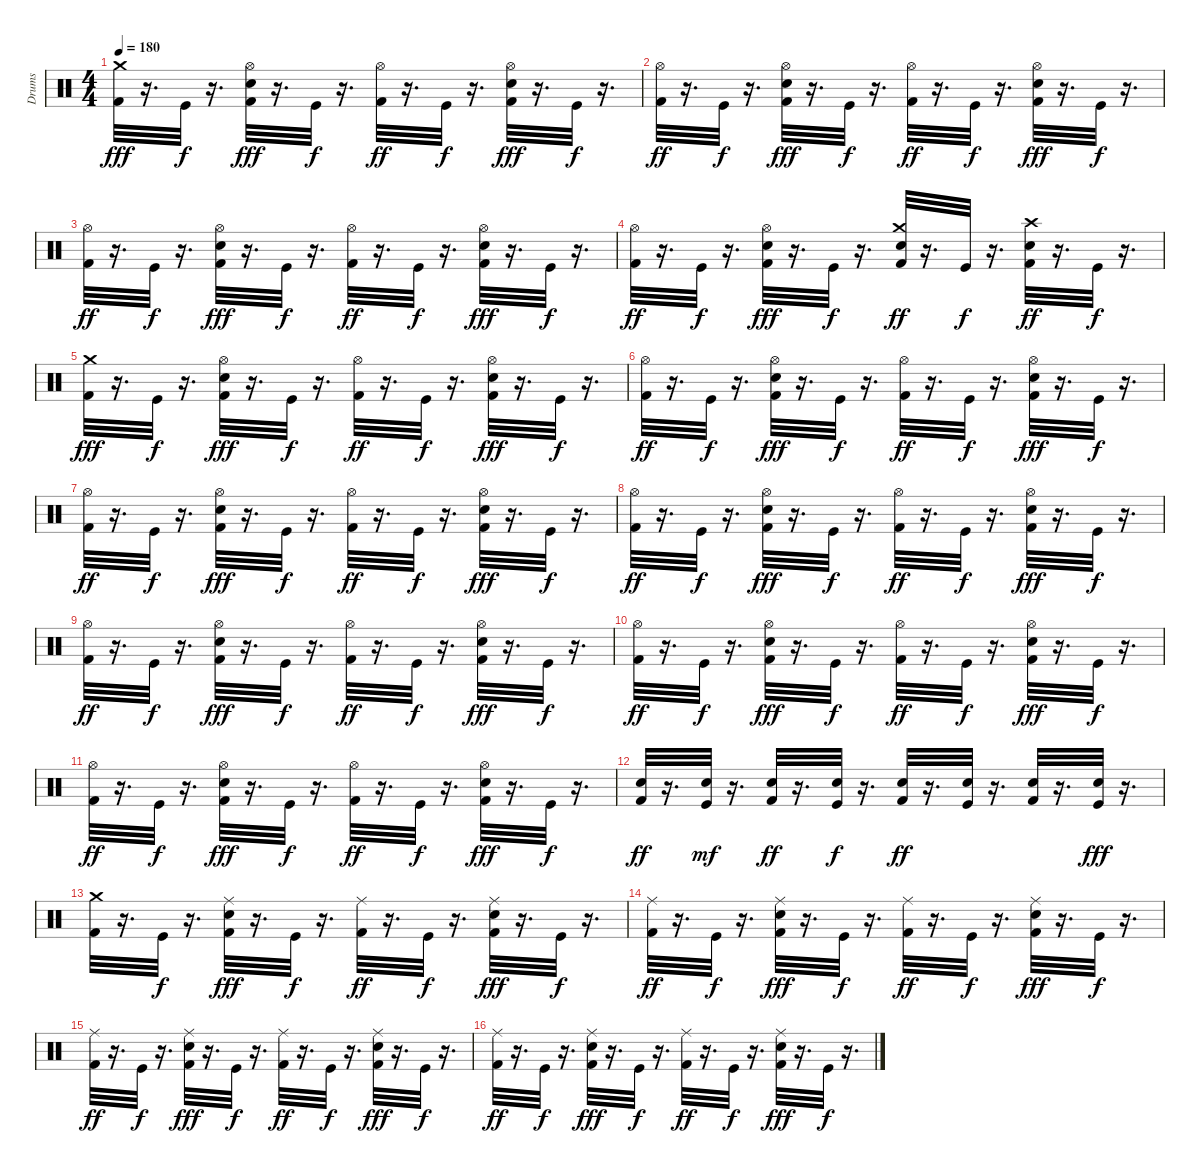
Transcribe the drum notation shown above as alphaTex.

\track ("Drums" "Drums") {instrument percussion}
\staff {score}
\articulation defaults
\ts (4 4)
\tempo 180
\clef neutral
\ks c
("Kick (hit) 2" "Crash medium (hit)").32{dy fff} r.16{d} "Kick (hit)".32{dy f} r.16{d} ("Snare (hit) 2" "Kick (hit) 2" "Hi-Hat (open)").32{dy fff} r.16{d} "Kick (hit)".32{dy f} r.16{d} ("Kick (hit) 2" "Hi-Hat (open)").32{dy ff} r.16{d} "Kick (hit)".32{dy f} r.16{d} ("Snare (hit) 2" "Kick (hit) 2" "Hi-Hat (open)").32{dy fff} r.16{d} "Kick (hit)".32{dy f} r.16{d} |
("Kick (hit) 2" "Hi-Hat (open)").32{dy ff} r.16{d} "Kick (hit)".32{dy f} r.16{d} ("Snare (hit) 2" "Kick (hit) 2" "Hi-Hat (open)").32{dy fff} r.16{d} "Kick (hit)".32{dy f} r.16{d} ("Kick (hit) 2" "Hi-Hat (open)").32{dy ff} r.16{d} "Kick (hit)".32{dy f} r.16{d} ("Snare (hit) 2" "Kick (hit) 2" "Hi-Hat (open)").32{dy fff} r.16{d} "Kick (hit)".32{dy f} r.16{d} |
("Kick (hit) 2" "Hi-Hat (open)").32{dy ff} r.16{d} "Kick (hit)".32{dy f} r.16{d} ("Snare (hit) 2" "Kick (hit) 2" "Hi-Hat (open)").32{dy fff} r.16{d} "Kick (hit)".32{dy f} r.16{d} ("Kick (hit) 2" "Hi-Hat (open)").32{dy ff} r.16{d} "Kick (hit)".32{dy f} r.16{d} ("Snare (hit) 2" "Kick (hit) 2" "Hi-Hat (open)").32{dy fff} r.16{d} "Kick (hit)".32{dy f} r.16{d} |
("Kick (hit) 2" "Hi-Hat (open)").32{dy ff} r.16{d} "Kick (hit)".32{dy f} r.16{d} ("Snare (hit) 2" "Kick (hit) 2" "Hi-Hat (open)").32{dy fff} r.16{d} "Kick (hit)".32{dy f} r.16{d} ("Crash medium (hit)" "Snare (hit) 2" "Kick (hit) 2").32{dy ff} r.16{d} "Kick (hit)".32{dy f} r.16{d} ("Crash high (hit)" "Snare (hit) 2" "Kick (hit) 2").32{dy ff} r.16{d} "Kick (hit)".32{dy f} r.16{d} |
("Kick (hit) 2" "Crash medium (hit)").32{dy fff} r.16{d} "Kick (hit)".32{dy f} r.16{d} ("Snare (hit) 2" "Kick (hit) 2" "Hi-Hat (open)").32{dy fff} r.16{d} "Kick (hit)".32{dy f} r.16{d} ("Kick (hit) 2" "Hi-Hat (open)").32{dy ff} r.16{d} "Kick (hit)".32{dy f} r.16{d} ("Snare (hit) 2" "Kick (hit) 2" "Hi-Hat (open)").32{dy fff} r.16{d} "Kick (hit)".32{dy f} r.16{d} |
("Kick (hit) 2" "Hi-Hat (open)").32{dy ff} r.16{d} "Kick (hit)".32{dy f} r.16{d} ("Snare (hit) 2" "Kick (hit) 2" "Hi-Hat (open)").32{dy fff} r.16{d} "Kick (hit)".32{dy f} r.16{d} ("Kick (hit) 2" "Hi-Hat (open)").32{dy ff} r.16{d} "Kick (hit)".32{dy f} r.16{d} ("Snare (hit) 2" "Kick (hit) 2" "Hi-Hat (open)").32{dy fff} r.16{d} "Kick (hit)".32{dy f} r.16{d} |
("Kick (hit) 2" "Hi-Hat (open)").32{dy ff} r.16{d} "Kick (hit)".32{dy f} r.16{d} ("Snare (hit) 2" "Kick (hit) 2" "Hi-Hat (open)").32{dy fff} r.16{d} "Kick (hit)".32{dy f} r.16{d} ("Kick (hit) 2" "Hi-Hat (open)").32{dy ff} r.16{d} "Kick (hit)".32{dy f} r.16{d} ("Snare (hit) 2" "Kick (hit) 2" "Hi-Hat (open)").32{dy fff} r.16{d} "Kick (hit)".32{dy f} r.16{d} |
("Kick (hit) 2" "Hi-Hat (open)").32{dy ff} r.16{d} "Kick (hit)".32{dy f} r.16{d} ("Snare (hit) 2" "Kick (hit) 2" "Hi-Hat (open)").32{dy fff} r.16{d} "Kick (hit)".32{dy f} r.16{d} ("Kick (hit) 2" "Hi-Hat (open)").32{dy ff} r.16{d} "Kick (hit)".32{dy f} r.16{d} ("Snare (hit) 2" "Kick (hit) 2" "Hi-Hat (open)").32{dy fff} r.16{d} "Kick (hit)".32{dy f} r.16{d} |
("Kick (hit) 2" "Hi-Hat (open)").32{dy ff} r.16{d} "Kick (hit)".32{dy f} r.16{d} ("Snare (hit) 2" "Kick (hit) 2" "Hi-Hat (open)").32{dy fff} r.16{d} "Kick (hit)".32{dy f} r.16{d} ("Kick (hit) 2" "Hi-Hat (open)").32{dy ff} r.16{d} "Kick (hit)".32{dy f} r.16{d} ("Snare (hit) 2" "Kick (hit) 2" "Hi-Hat (open)").32{dy fff} r.16{d} "Kick (hit)".32{dy f} r.16{d} |
("Kick (hit) 2" "Hi-Hat (open)").32{dy ff} r.16{d} "Kick (hit)".32{dy f} r.16{d} ("Snare (hit) 2" "Kick (hit) 2" "Hi-Hat (open)").32{dy fff} r.16{d} "Kick (hit)".32{dy f} r.16{d} ("Kick (hit) 2" "Hi-Hat (open)").32{dy ff} r.16{d} "Kick (hit)".32{dy f} r.16{d} ("Snare (hit) 2" "Kick (hit) 2" "Hi-Hat (open)").32{dy fff} r.16{d} "Kick (hit)".32{dy f} r.16{d} |
("Kick (hit) 2" "Hi-Hat (open)").32{dy ff} r.16{d} "Kick (hit)".32{dy f} r.16{d} ("Snare (hit) 2" "Kick (hit) 2" "Hi-Hat (open)").32{dy fff} r.16{d} "Kick (hit)".32{dy f} r.16{d} ("Kick (hit) 2" "Hi-Hat (open)").32{dy ff} r.16{d} "Kick (hit)".32{dy f} r.16{d} ("Snare (hit) 2" "Kick (hit) 2" "Hi-Hat (open)").32{dy fff} r.16{d} "Kick (hit)".32{dy f} r.16{d} |
("Snare (hit) 2" "Kick (hit) 2").32{dy ff} r.16{d} ("Snare (hit) 2" "Kick (hit)").32{dy mf} r.16{d} ("Snare (hit) 2" "Kick (hit) 2").32{dy ff} r.16{d} ("Snare (hit) 2" "Kick (hit)").32{dy f} r.16{d} ("Snare (hit) 2" "Kick (hit) 2").32{dy ff} r.16{d} ("Snare (hit) 2" "Kick (hit)").32 r.16{d} ("Snare (hit) 2" "Kick (hit) 2").32 r.16{d} ("Snare (hit) 2" "Kick (hit)").32{dy fff} r.16{d} |
("Kick (hit) 2" "Crash medium (hit)").32 r.16{d} "Kick (hit)".32{dy f} r.16{d} ("Kick (hit) 2" "Snare (hit) 2" "Ride (middle)").32{dy fff} r.16{d} "Kick (hit)".32{dy f} r.16{d} ("Kick (hit) 2" "Ride (middle)").32{dy ff} r.16{d} "Kick (hit)".32{dy f} r.16{d} ("Kick (hit) 2" "Snare (hit) 2" "Ride (middle)").32{dy fff} r.16{d} "Kick (hit)".32{dy f} r.16{d} |
("Kick (hit) 2" "Ride (middle)").32{dy ff} r.16{d} "Kick (hit)".32{dy f} r.16{d} ("Snare (hit) 2" "Kick (hit) 2" "Ride (middle)").32{dy fff} r.16{d} "Kick (hit)".32{dy f} r.16{d} ("Kick (hit) 2" "Ride (middle)").32{dy ff} r.16{d} "Kick (hit)".32{dy f} r.16{d} ("Snare (hit) 2" "Kick (hit) 2" "Ride (middle)").32{dy fff} r.16{d} "Kick (hit)".32{dy f} r.16{d} |
("Kick (hit) 2" "Ride (middle)").32{dy ff} r.16{d} "Kick (hit)".32{dy f} r.16{d} ("Snare (hit) 2" "Kick (hit) 2" "Ride (middle)").32{dy fff} r.16{d} "Kick (hit)".32{dy f} r.16{d} ("Kick (hit) 2" "Ride (middle)").32{dy ff} r.16{d} "Kick (hit)".32{dy f} r.16{d} ("Snare (hit) 2" "Kick (hit) 2" "Ride (middle)").32{dy fff} r.16{d} "Kick (hit)".32{dy f} r.16{d} |
("Kick (hit) 2" "Ride (middle)").32{dy ff} r.16{d} "Kick (hit)".32{dy f} r.16{d} ("Snare (hit) 2" "Kick (hit) 2" "Ride (middle)").32{dy fff} r.16{d} "Kick (hit)".32{dy f} r.16{d} ("Kick (hit) 2" "Ride (middle)").32{dy ff} r.16{d} "Kick (hit)".32{dy f} r.16{d} ("Snare (hit) 2" "Kick (hit) 2" "Ride (middle)").32{dy fff} r.16{d} "Kick (hit)".32{dy f} r.16{d}
